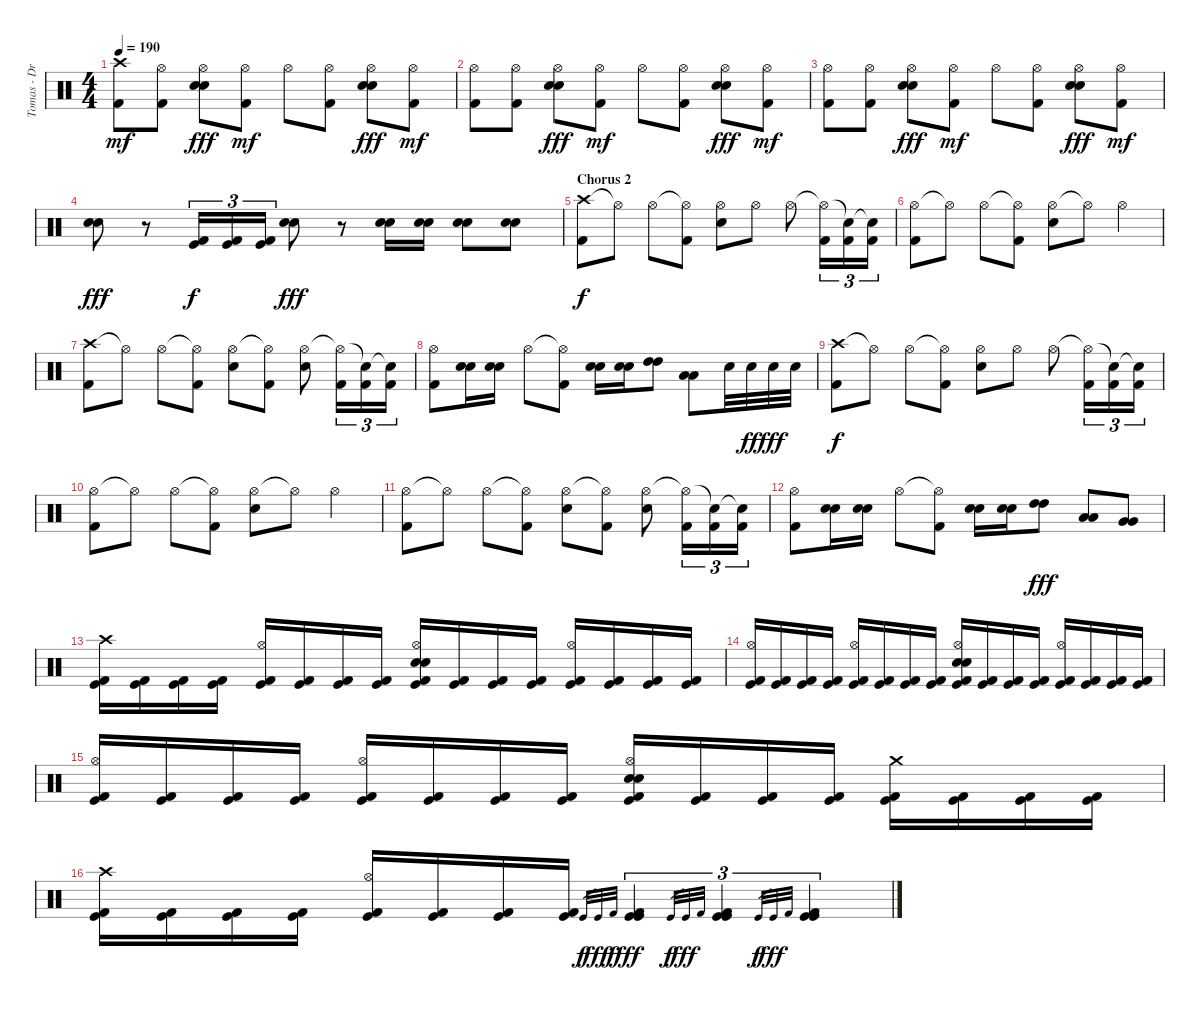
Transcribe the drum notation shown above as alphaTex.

\track ("Tomas - Drums" "Tomas - Dr") {instrument percussion}
\staff {score}
\articulation defaults
\ts (4 4)
\tempo 190
\clef neutral
\ks c
("Crash high (hit)" "Kick (hit) 2").8{dy mf} ("Hi-Hat (open)" "Kick (hit) 2").8 ("Hi-Hat (open)" "Electric Snare (hit)" "Electric Snare (hit)").8{dy fff} ("Hi-Hat (open)" "Kick (hit) 2").8{dy mf} "Hi-Hat (open)".8 ("Hi-Hat (open)" "Kick (hit) 2").8 ("Hi-Hat (open)" "Electric Snare (hit)" "Electric Snare (hit)").8{dy fff} ("Hi-Hat (open)" "Kick (hit) 2").8{dy mf} |
("Hi-Hat (open)" "Kick (hit) 2").8 ("Hi-Hat (open)" "Kick (hit) 2").8 ("Hi-Hat (open)" "Electric Snare (hit)" "Electric Snare (hit)").8{dy fff} ("Hi-Hat (open)" "Kick (hit) 2").8{dy mf} "Hi-Hat (open)".8 ("Hi-Hat (open)" "Kick (hit) 2").8 ("Hi-Hat (open)" "Electric Snare (hit)" "Electric Snare (hit)").8{dy fff} ("Hi-Hat (open)" "Kick (hit) 2").8{dy mf} |
("Hi-Hat (open)" "Kick (hit) 2").8 ("Hi-Hat (open)" "Kick (hit) 2").8 ("Hi-Hat (open)" "Electric Snare (hit)" "Electric Snare (hit)").8{dy fff} ("Hi-Hat (open)" "Kick (hit) 2").8{dy mf} "Hi-Hat (open)".8 ("Hi-Hat (open)" "Kick (hit) 2").8 ("Hi-Hat (open)" "Electric Snare (hit)" "Electric Snare (hit)").8{dy fff} ("Hi-Hat (open)" "Kick (hit) 2").8{dy mf} |
("Electric Snare (hit)" "Electric Snare (hit)").8{dy fff} r.8 ("Kick (hit)" "Kick (hit) 2").16{tu (3 2) dy f} ("Kick (hit)" "Kick (hit) 2").16{tu (3 2)} ("Kick (hit)" "Kick (hit) 2").16{tu (3 2)} ("Electric Snare (hit)" "Electric Snare (hit)").8{dy fff} r.8 ("Electric Snare (hit)" "Electric Snare (hit)").16 ("Electric Snare (hit)" "Electric Snare (hit)").16 ("Electric Snare (hit)" "Electric Snare (hit)").8 ("Electric Snare (hit)" "Electric Snare (hit)").8 |
\section ("" "Chorus 2")
("Crash high (hit)" "Kick (hit) 2").8{dy f} "Hi-Hat (open)"{t}.8 "Hi-Hat (open)".8 ("Hi-Hat (open)"{t} "Kick (hit) 2").8 ("Hi-Hat (open)" "Electric Snare (hit)").8 "Hi-Hat (open)".8 "Hi-Hat (open)".8 ("Hi-Hat (open)"{t} "Kick (hit) 2").16{tu (3 2)} ("Snare (hit)"{t} "Kick (hit) 2").16{tu (3 2)} ("Snare (hit)"{t} "Kick (hit) 2").16{tu (3 2)} |
("Hi-Hat (open)" "Kick (hit) 2").8 "Hi-Hat (open)"{t}.8 "Hi-Hat (open)".8 ("Hi-Hat (open)"{t} "Kick (hit) 2").8 ("Hi-Hat (open)" "Electric Snare (hit)").8 "Hi-Hat (open)"{t}.8 "Hi-Hat (open)".4 |
("Crash high (hit)" "Kick (hit) 2").8 "Hi-Hat (open)"{t}.8 "Hi-Hat (open)".8 ("Hi-Hat (open)"{t} "Kick (hit) 2").8 ("Hi-Hat (open)" "Electric Snare (hit)").8 ("Hi-Hat (open)"{t} "Kick (hit) 2").8 ("Hi-Hat (open)" "Electric Snare (hit)").8 ("Hi-Hat (open)"{t} "Kick (hit) 2").16{tu (3 2)} ("Snare (hit)"{t} "Kick (hit) 2").16{tu (3 2)} ("Snare (hit)"{t} "Kick (hit) 2").16{tu (3 2)} |
("Hi-Hat (open)" "Kick (hit) 2").8 ("Electric Snare (hit)" "Electric Snare (hit)").16 ("Electric Snare (hit)" "Electric Snare (hit)").16 "Hi-Hat (open)".8 ("Hi-Hat (open)"{t} "Kick (hit) 2").8 ("Electric Snare (hit)" "Electric Snare (hit)").16 ("Electric Snare (hit)" "Electric Snare (hit)").16 ("High Tom (hit)" "High Tom (hit)").8 ("Low Tom (hit)" "Low Tom (hit)").8 "Electric Snare (hit)".32 "Electric Snare (hit)".32{dy ff} "Electric Snare (hit)".32{dy fff} "Electric Snare (hit)".32 |
("Crash high (hit)" "Kick (hit) 2").8{dy f} "Hi-Hat (open)"{t}.8 "Hi-Hat (open)".8 ("Hi-Hat (open)"{t} "Kick (hit) 2").8 ("Hi-Hat (open)" "Electric Snare (hit)").8 "Hi-Hat (open)".8 "Hi-Hat (open)".8 ("Hi-Hat (open)"{t} "Kick (hit) 2").16{tu (3 2)} ("Snare (hit)"{t} "Kick (hit) 2").16{tu (3 2)} ("Snare (hit)"{t} "Kick (hit) 2").16{tu (3 2)} |
("Hi-Hat (open)" "Kick (hit) 2").8 "Hi-Hat (open)"{t}.8 "Hi-Hat (open)".8 ("Hi-Hat (open)"{t} "Kick (hit) 2").8 ("Hi-Hat (open)" "Electric Snare (hit)").8 "Hi-Hat (open)"{t}.8 "Hi-Hat (open)".4 |
("Hi-Hat (open)" "Kick (hit) 2").8 "Hi-Hat (open)"{t}.8 "Hi-Hat (open)".8 ("Hi-Hat (open)"{t} "Kick (hit) 2").8 ("Hi-Hat (open)" "Electric Snare (hit)").8 ("Hi-Hat (open)"{t} "Kick (hit) 2").8 ("Hi-Hat (open)" "Electric Snare (hit)").8 ("Hi-Hat (open)"{t} "Kick (hit) 2").16{tu (3 2)} ("Snare (hit)"{t} "Kick (hit) 2").16{tu (3 2)} ("Snare (hit)"{t} "Kick (hit) 2").16{tu (3 2)} |
("Hi-Hat (open)" "Kick (hit) 2").8 ("Electric Snare (hit)" "Electric Snare (hit)").16 ("Electric Snare (hit)" "Electric Snare (hit)").16 "Hi-Hat (open)".8 ("Hi-Hat (open)"{t} "Kick (hit) 2").8 ("Electric Snare (hit)" "Electric Snare (hit)").16 ("Electric Snare (hit)" "Electric Snare (hit)").16 ("High Tom (hit)" "High Tom (hit)").8{dy fff} ("Low Tom (hit)" "Low Tom (hit)").8 ("Very Low Tom (hit)" "Very Low Tom (hit)").8 |
("Crash high (hit)" "Kick (hit)" "Kick (hit) 2").16 ("Kick (hit)" "Kick (hit) 2").16 ("Kick (hit)" "Kick (hit) 2").16 ("Kick (hit)" "Kick (hit) 2").16 ("Hi-Hat (open)" "Kick (hit)" "Kick (hit) 2").16 ("Kick (hit)" "Kick (hit) 2").16 ("Kick (hit)" "Kick (hit) 2").16 ("Kick (hit)" "Kick (hit) 2").16 ("Hi-Hat (open)" "Electric Snare (hit)" "Electric Snare (hit)" "Kick (hit)" "Kick (hit) 2").16 ("Kick (hit)" "Kick (hit) 2").16 ("Kick (hit)" "Kick (hit) 2").16 ("Kick (hit)" "Kick (hit) 2").16 ("Hi-Hat (open)" "Kick (hit)" "Kick (hit) 2").16 ("Kick (hit)" "Kick (hit) 2").16 ("Kick (hit)" "Kick (hit) 2").16 ("Kick (hit)" "Kick (hit) 2").16 |
("Hi-Hat (open)" "Kick (hit)" "Kick (hit) 2").16 ("Kick (hit)" "Kick (hit) 2").16 ("Kick (hit)" "Kick (hit) 2").16 ("Kick (hit)" "Kick (hit) 2").16 ("Hi-Hat (open)" "Kick (hit)" "Kick (hit) 2").16 ("Kick (hit)" "Kick (hit) 2").16 ("Kick (hit)" "Kick (hit) 2").16 ("Kick (hit)" "Kick (hit) 2").16 ("Hi-Hat (open)" "Electric Snare (hit)" "Electric Snare (hit)" "Kick (hit)" "Kick (hit) 2").16 ("Kick (hit)" "Kick (hit) 2").16 ("Kick (hit)" "Kick (hit) 2").16 ("Kick (hit)" "Kick (hit) 2").16 ("Hi-Hat (open)" "Kick (hit)" "Kick (hit) 2").16 ("Kick (hit)" "Kick (hit) 2").16 ("Kick (hit)" "Kick (hit) 2").16 ("Kick (hit)" "Kick (hit) 2").16 |
("Hi-Hat (open)" "Kick (hit)" "Kick (hit) 2").16 ("Kick (hit)" "Kick (hit) 2").16 ("Kick (hit)" "Kick (hit) 2").16 ("Kick (hit)" "Kick (hit) 2").16 ("Hi-Hat (open)" "Kick (hit)" "Kick (hit) 2").16 ("Kick (hit)" "Kick (hit) 2").16 ("Kick (hit)" "Kick (hit) 2").16 ("Kick (hit)" "Kick (hit) 2").16 ("Hi-Hat (open)" "Electric Snare (hit)" "Electric Snare (hit)" "Kick (hit)" "Kick (hit) 2").16 ("Kick (hit)" "Kick (hit) 2").16 ("Kick (hit)" "Kick (hit) 2").16 ("Kick (hit)" "Kick (hit) 2").16 ("Crash medium (hit)" "Kick (hit)" "Kick (hit) 2").16 ("Kick (hit)" "Kick (hit) 2").16 ("Kick (hit)" "Kick (hit) 2").16 ("Kick (hit)" "Kick (hit) 2").16 |
("Crash high (hit)" "Kick (hit)" "Kick (hit) 2").16 ("Kick (hit)" "Kick (hit) 2").16 ("Kick (hit)" "Kick (hit) 2").16 ("Kick (hit)" "Kick (hit) 2").16 ("Hi-Hat (open)" "Kick (hit)" "Kick (hit) 2").16 ("Kick (hit)" "Kick (hit) 2").16 ("Kick (hit)" "Kick (hit) 2").16 ("Kick (hit)" "Kick (hit) 2").16 "Kick (hit)".32{gr dy f} "Kick (hit)".32{gr dy fff} "Kick (hit) 2".32{gr dy f} ("Kick (hit)" "Kick (hit)" "Kick (hit) 2").4{tu (3 2) dy fff} "Kick (hit)".32{gr dy f} "Kick (hit)".32{gr dy fff} "Kick (hit) 2".32{gr} ("Kick (hit)" "Kick (hit)" "Kick (hit) 2").4{tu (3 2)} "Kick (hit)".32{gr dy f} "Kick (hit)".32{gr dy fff} "Kick (hit) 2".32{gr} ("Kick (hit)" "Kick (hit)" "Kick (hit) 2").4{tu (3 2)}
